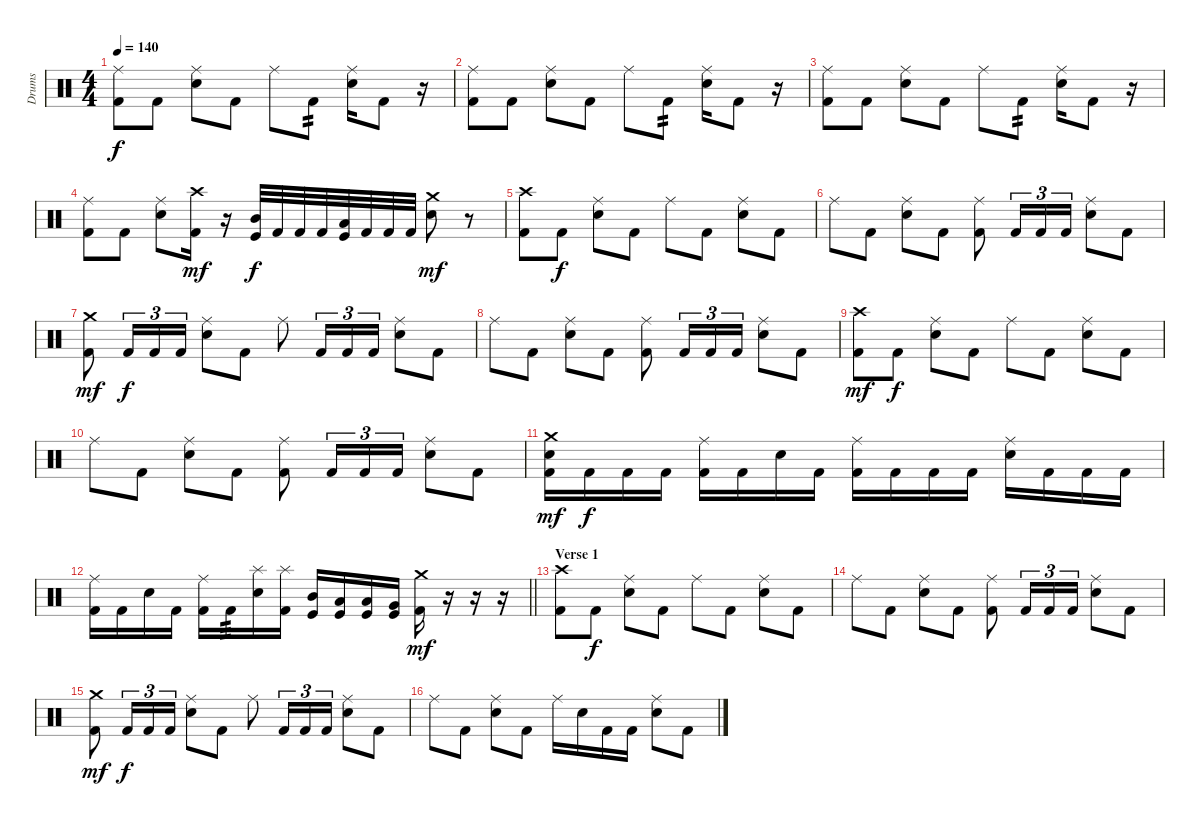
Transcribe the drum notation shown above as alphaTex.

\track ("Drums" "Drums") {instrument percussion}
\staff {score}
\articulation defaults
\ts (4 4)
\tempo 140
\clef neutral
\ks c
("Ride (middle)" "Kick (hit) 2").8{dy f} "Kick (hit) 2".8 ("Ride (middle)" "Electric Snare (hit)").8 "Kick (hit) 2".8 "Ride (middle)".8 "Kick (hit) 2".8{tp 2} ("Ride (middle)" "Electric Snare (hit)").16 "Kick (hit) 2".8 r.16 |
("Ride (middle)" "Kick (hit) 2").8 "Kick (hit) 2".8 ("Ride (middle)" "Electric Snare (hit)").8 "Kick (hit) 2".8 "Ride (middle)".8 "Kick (hit) 2".8{tp 2} ("Ride (middle)" "Electric Snare (hit)").16 "Kick (hit) 2".8 r.16 |
("Ride (middle)" "Kick (hit) 2").8 "Kick (hit) 2".8 ("Ride (middle)" "Electric Snare (hit)").8 "Kick (hit) 2".8 "Ride (middle)".8 "Kick (hit) 2".8{tp 2} ("Ride (middle)" "Electric Snare (hit)").16 "Kick (hit) 2".8 r.16 |
("Ride (middle)" "Kick (hit) 2").8 "Kick (hit) 2".8 ("Ride (middle)" "Electric Snare (hit)").8 ("Crash high (hit)" "Kick (hit) 2").16{dy mf} r.16 ("Mid Tom (hit)" "Kick (hit)").32{dy f} "Kick (hit) 2".32 "Kick (hit) 2".32 "Kick (hit) 2".32 ("Low Tom (hit)" "Kick (hit)").32 "Kick (hit) 2".32 "Kick (hit) 2".32 "Kick (hit) 2".32 ("Crash medium (hit)" "Electric Snare (hit)").8{dy mf} r.8 |
("Crash high (hit)" "Kick (hit) 2").8 "Kick (hit) 2".8{dy f} ("Ride (middle)" "Electric Snare (hit)").8 "Kick (hit) 2".8 "Ride (middle)".8 "Kick (hit) 2".8 ("Ride (middle)" "Electric Snare (hit)").8 "Kick (hit) 2".8 |
"Ride (middle)".8 "Kick (hit) 2".8 ("Ride (middle)" "Electric Snare (hit)").8 "Kick (hit) 2".8 ("Ride (middle)" "Kick (hit) 2").8 "Kick (hit) 2".16{tu (3 2)} "Kick (hit) 2".16{tu (3 2)} "Kick (hit) 2".16{tu (3 2)} ("Ride (middle)" "Electric Snare (hit)").8 "Kick (hit) 2".8 |
("Crash medium (hit)" "Kick (hit) 2").8{dy mf} "Kick (hit) 2".16{tu (3 2) dy f} "Kick (hit) 2".16{tu (3 2)} "Kick (hit) 2".16{tu (3 2)} ("Ride (middle)" "Electric Snare (hit)").8 "Kick (hit) 2".8 "Ride (middle)".8 "Kick (hit) 2".16{tu (3 2)} "Kick (hit) 2".16{tu (3 2)} "Kick (hit) 2".16{tu (3 2)} ("Ride (middle)" "Electric Snare (hit)").8 "Kick (hit) 2".8 |
"Ride (middle)".8 "Kick (hit) 2".8 ("Ride (middle)" "Electric Snare (hit)").8 "Kick (hit) 2".8 ("Ride (middle)" "Kick (hit) 2").8 "Kick (hit) 2".16{tu (3 2)} "Kick (hit) 2".16{tu (3 2)} "Kick (hit) 2".16{tu (3 2)} ("Ride (middle)" "Electric Snare (hit)").8 "Kick (hit) 2".8 |
("Crash high (hit)" "Kick (hit) 2").8{dy mf} "Kick (hit) 2".8{dy f} ("Ride (middle)" "Electric Snare (hit)").8 "Kick (hit) 2".8 "Ride (middle)".8 "Kick (hit) 2".8 ("Ride (middle)" "Electric Snare (hit)").8 "Kick (hit) 2".8 |
"Ride (middle)".8 "Kick (hit) 2".8 ("Ride (middle)" "Electric Snare (hit)").8 "Kick (hit) 2".8 ("Ride (middle)" "Kick (hit) 2").8 "Kick (hit) 2".16{tu (3 2)} "Kick (hit) 2".16{tu (3 2)} "Kick (hit) 2".16{tu (3 2)} ("Ride (middle)" "Electric Snare (hit)").8 "Kick (hit) 2".8 |
("Crash medium (hit)" "Electric Snare (hit)" "Kick (hit) 2").16{dy mf} "Kick (hit) 2".16{dy f} "Kick (hit) 2".16 "Kick (hit) 2".16 ("Ride (middle)" "Kick (hit) 2").16 "Kick (hit) 2".16 "Electric Snare (hit)".16 "Kick (hit) 2".16 ("Ride (middle)" "Kick (hit) 2").16 "Kick (hit) 2".16 "Kick (hit) 2".16 "Kick (hit) 2".16 ("Ride (middle)" "Electric Snare (hit)").16 "Kick (hit) 2".16 "Kick (hit) 2".16 "Kick (hit) 2".16 |
\barLineRight lightlight
("Ride (middle)" "Kick (hit) 2").16 "Kick (hit) 2".16 "Electric Snare (hit)".16 "Kick (hit) 2".16 ("Ride (middle)" "Kick (hit) 2").16 "Kick (hit) 2".16{tp 3} ("Splash (hit)" "Electric Snare (hit)").16 ("Splash (hit)" "Kick (hit) 2").16 ("Mid Tom (hit)" "Kick (hit)").16 ("Low Tom (hit)" "Kick (hit)").16 ("Low Tom (hit)" "Kick (hit)").16 ("Very Low Tom (hit)" "Kick (hit)").16 ("Crash medium (hit)" "Kick (hit) 2").16{dy mf} r.16 r.16 r.16 |
\section ("" "Verse 1")
("Crash high (hit)" "Kick (hit) 2").8 "Kick (hit) 2".8{dy f} ("Ride (middle)" "Electric Snare (hit)").8 "Kick (hit) 2".8 "Ride (middle)".8 "Kick (hit) 2".8 ("Ride (middle)" "Electric Snare (hit)").8 "Kick (hit) 2".8 |
"Ride (middle)".8 "Kick (hit) 2".8 ("Ride (middle)" "Electric Snare (hit)").8 "Kick (hit) 2".8 ("Ride (middle)" "Kick (hit) 2").8 "Kick (hit) 2".16{tu (3 2)} "Kick (hit) 2".16{tu (3 2)} "Kick (hit) 2".16{tu (3 2)} ("Ride (middle)" "Electric Snare (hit)").8 "Kick (hit) 2".8 |
("Crash medium (hit)" "Kick (hit) 2").8{dy mf} "Kick (hit) 2".16{tu (3 2) dy f} "Kick (hit) 2".16{tu (3 2)} "Kick (hit) 2".16{tu (3 2)} ("Ride (middle)" "Electric Snare (hit)").8 "Kick (hit) 2".8 "Ride (middle)".8 "Kick (hit) 2".16{tu (3 2)} "Kick (hit) 2".16{tu (3 2)} "Kick (hit) 2".16{tu (3 2)} ("Ride (middle)" "Electric Snare (hit)").8 "Kick (hit) 2".8 |
"Ride (middle)".8 "Kick (hit) 2".8 ("Ride (middle)" "Electric Snare (hit)").8 "Kick (hit) 2".8 "Ride (middle)".16 "Electric Snare (hit)".16 "Kick (hit) 2".16 "Kick (hit) 2".16 ("Ride (middle)" "Electric Snare (hit)").8 "Kick (hit) 2".8
